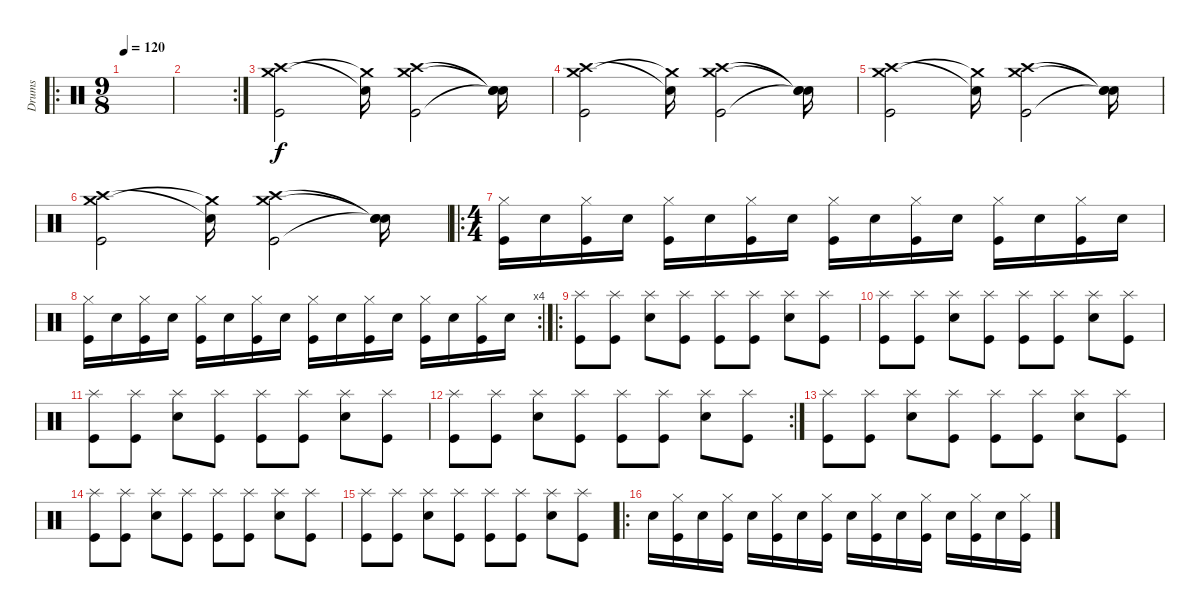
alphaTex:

\track ("Drums" "Drums") {instrument percussion}
\staff {score}
\articulation defaults
\ro
\ts (9 8)
\tempo 120
\clef neutral
\ks c
|
\rc 2
|
("Crash medium (hit)" "Crash high (hit)" "Kick (hit)").2 ("Crash medium (hit)"{t} "Snare (hit)"{t}).16 ("Crash medium (hit)" "Crash high (hit)" "Kick (hit)").2 ("Snare (hit)"{t} "Snare (hit)"{t} "Snare (hit)"{t}).16 |
("Crash medium (hit)" "Crash high (hit)" "Kick (hit)").2 ("Crash medium (hit)"{t} "Snare (hit)"{t}).16 ("Crash medium (hit)" "Crash high (hit)" "Kick (hit)").2 ("Snare (hit)"{t} "Snare (hit)"{t} "Snare (hit)"{t}).16 |
("Crash medium (hit)" "Crash high (hit)" "Kick (hit)").2 ("Crash medium (hit)"{t} "Snare (hit)"{t}).16 ("Crash medium (hit)" "Crash high (hit)" "Kick (hit)").2 ("Snare (hit)"{t} "Snare (hit)"{t} "Snare (hit)"{t}).16 |
("Crash medium (hit)" "Crash high (hit)" "Kick (hit)").2 ("Crash medium (hit)"{t} "Snare (hit)"{t}).16 ("Crash medium (hit)" "Crash high (hit)" "Kick (hit)").2 ("Snare (hit)"{t} "Snare (hit)"{t} "Snare (hit)"{t}).16 |
\ro
\ts (4 4)
("Hi-Hat (closed)" "Kick (hit)").16 "Electric Snare (hit)".16 ("Hi-Hat (closed)" "Kick (hit)").16 "Electric Snare (hit)".16 ("Hi-Hat (closed)" "Kick (hit)").16 "Electric Snare (hit)".16 ("Hi-Hat (closed)" "Kick (hit)").16 "Electric Snare (hit)".16 ("Hi-Hat (closed)" "Kick (hit)").16 "Electric Snare (hit)".16 ("Hi-Hat (closed)" "Kick (hit)").16 "Electric Snare (hit)".16 ("Hi-Hat (closed)" "Kick (hit)").16 "Electric Snare (hit)".16 ("Hi-Hat (closed)" "Kick (hit)").16 "Electric Snare (hit)".16 |
\rc 4
("Hi-Hat (closed)" "Kick (hit)").16 "Electric Snare (hit)".16 ("Hi-Hat (closed)" "Kick (hit)").16 "Electric Snare (hit)".16 ("Hi-Hat (closed)" "Kick (hit)").16 "Electric Snare (hit)".16 ("Hi-Hat (closed)" "Kick (hit)").16 "Electric Snare (hit)".16 ("Hi-Hat (closed)" "Kick (hit)").16 "Electric Snare (hit)".16 ("Hi-Hat (closed)" "Kick (hit)").16 "Electric Snare (hit)".16 ("Hi-Hat (closed)" "Kick (hit)").16 "Electric Snare (hit)".16 ("Hi-Hat (closed)" "Kick (hit)").16 "Electric Snare (hit)".16 |
\ro
("Splash (hit)" "Kick (hit)").8 ("Splash (hit)" "Kick (hit)").8 ("Splash (hit)" "Electric Snare (hit)").8 ("Splash (hit)" "Kick (hit)").8 ("Splash (hit)" "Kick (hit)").8 ("Splash (hit)" "Kick (hit)").8 ("Splash (hit)" "Electric Snare (hit)").8 ("Splash (hit)" "Kick (hit)").8 |
("Splash (hit)" "Kick (hit)").8 ("Splash (hit)" "Kick (hit)").8 ("Splash (hit)" "Electric Snare (hit)").8 ("Splash (hit)" "Kick (hit)").8 ("Splash (hit)" "Kick (hit)").8 ("Splash (hit)" "Kick (hit)").8 ("Splash (hit)" "Electric Snare (hit)").8 ("Splash (hit)" "Kick (hit)").8 |
("Splash (hit)" "Kick (hit)").8 ("Splash (hit)" "Kick (hit)").8 ("Splash (hit)" "Electric Snare (hit)").8 ("Splash (hit)" "Kick (hit)").8 ("Splash (hit)" "Kick (hit)").8 ("Splash (hit)" "Kick (hit)").8 ("Splash (hit)" "Electric Snare (hit)").8 ("Splash (hit)" "Kick (hit)").8 |
\rc 2
("Splash (hit)" "Kick (hit)").8 ("Splash (hit)" "Kick (hit)").8 ("Splash (hit)" "Electric Snare (hit)").8 ("Splash (hit)" "Kick (hit)").8 ("Splash (hit)" "Kick (hit)").8 ("Splash (hit)" "Kick (hit)").8 ("Splash (hit)" "Electric Snare (hit)").8 ("Splash (hit)" "Kick (hit)").8 |
("Splash (hit)" "Kick (hit)").8 ("Splash (hit)" "Kick (hit)").8 ("Splash (hit)" "Electric Snare (hit)").8 ("Splash (hit)" "Kick (hit)").8 ("Splash (hit)" "Kick (hit)").8 ("Splash (hit)" "Kick (hit)").8 ("Splash (hit)" "Electric Snare (hit)").8 ("Splash (hit)" "Kick (hit)").8 |
("Splash (hit)" "Kick (hit)").8 ("Splash (hit)" "Kick (hit)").8 ("Splash (hit)" "Electric Snare (hit)").8 ("Splash (hit)" "Kick (hit)").8 ("Splash (hit)" "Kick (hit)").8 ("Splash (hit)" "Kick (hit)").8 ("Splash (hit)" "Electric Snare (hit)").8 ("Splash (hit)" "Kick (hit)").8 |
("Splash (hit)" "Kick (hit)").8 ("Splash (hit)" "Kick (hit)").8 ("Splash (hit)" "Electric Snare (hit)").8 ("Splash (hit)" "Kick (hit)").8 ("Splash (hit)" "Kick (hit)").8 ("Splash (hit)" "Kick (hit)").8 ("Splash (hit)" "Electric Snare (hit)").8 ("Splash (hit)" "Kick (hit)").8 |
\ro "Electric Snare (hit)".16
("Hi-Hat (closed)" "Kick (hit)").16 "Electric Snare (hit)".16 ("Hi-Hat (closed)" "Kick (hit)").16 "Electric Snare (hit)".16 ("Hi-Hat (closed)" "Kick (hit)").16 "Electric Snare (hit)".16 ("Hi-Hat (closed)" "Kick (hit)").16 "Electric Snare (hit)".16 ("Hi-Hat (closed)" "Kick (hit)").16 "Electric Snare (hit)".16 ("Hi-Hat (closed)" "Kick (hit)").16 "Electric Snare (hit)".16 ("Hi-Hat (closed)" "Kick (hit)").16 "Electric Snare (hit)".16 ("Hi-Hat (closed)" "Kick (hit)").16
